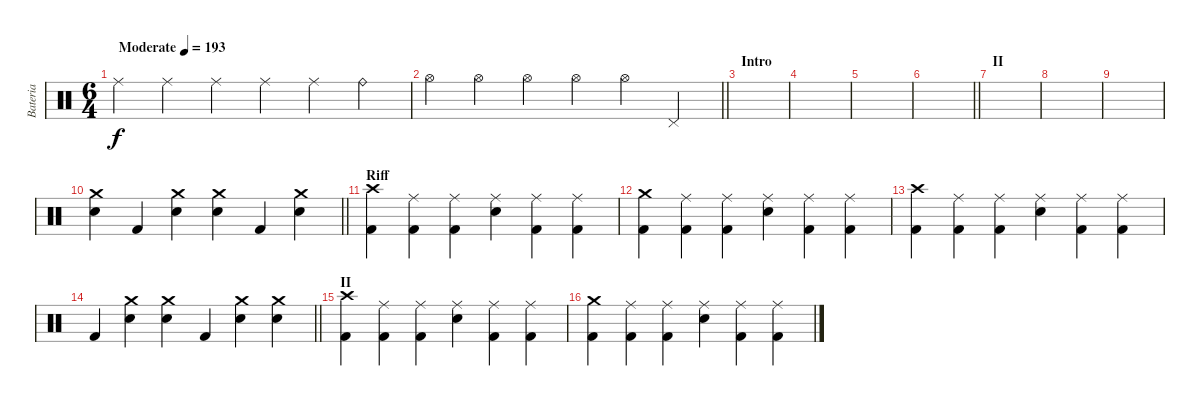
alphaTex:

\track ("Bateria" "Bateria") {instrument percussion}
\staff {score}
\articulation defaults
\ts (6 4)
\tempo (193 "Moderate")
\clef neutral
\ks c "Ride (middle)".4{dy f} "Ride (middle)".4 "Ride (middle)".4 "Ride (middle)".4 "Ride (middle)".4 "Ride (bell)".4
|
\barLineRight lightlight "Hi-Hat (open)".4 "Hi-Hat (open)".4 "Hi-Hat (open)".4 "Hi-Hat (open)".4 "Hi-Hat (open)".4 "Pedal Hi-Hat (hit)".4
|
\section ("" "Intro")
|
|
|
\barLineRight lightlight
|
\section ("" "II")
|
|
|
\barLineRight lightlight
("Electric Snare (hit)" "Crash medium (hit)").4 "Kick (hit) 2".4 ("Electric Snare (hit)" "Crash medium (hit)").4 ("Electric Snare (hit)" "Crash medium (hit)").4 "Kick (hit) 2".4 ("Electric Snare (hit)" "Crash medium (hit)").4 |
\section ("" "Riff")
("Kick (hit) 2" "Crash high (hit)").4 ("Kick (hit) 2" "Ride (middle)").4 ("Kick (hit) 2" "Ride (middle)").4 ("Electric Snare (hit)" "Ride (middle)").4 ("Kick (hit) 2" "Ride (middle)").4 ("Kick (hit) 2" "Ride (middle)").4 |
("Kick (hit) 2" "Crash medium (hit)").4 ("Kick (hit) 2" "Ride (middle)").4 ("Kick (hit) 2" "Ride (middle)").4 ("Electric Snare (hit)" "Ride (middle)").4 ("Kick (hit) 2" "Ride (middle)").4 ("Kick (hit) 2" "Ride (middle)").4 |
("Kick (hit) 2" "Crash high (hit)").4 ("Kick (hit) 2" "Ride (middle)").4 ("Kick (hit) 2" "Ride (middle)").4 ("Electric Snare (hit)" "Ride (middle)").4 ("Kick (hit) 2" "Ride (middle)").4 ("Kick (hit) 2" "Ride (middle)").4 |
\barLineRight lightlight "Kick (hit) 2".4
("Electric Snare (hit)" "Crash medium (hit)").4 ("Electric Snare (hit)" "Crash medium (hit)").4 "Kick (hit) 2".4 ("Electric Snare (hit)" "Crash medium (hit)").4 ("Electric Snare (hit)" "Crash medium (hit)").4 |
\section ("" "II")
("Kick (hit) 2" "Crash high (hit)").4 ("Kick (hit) 2" "Ride (middle)").4 ("Kick (hit) 2" "Ride (middle)").4 ("Electric Snare (hit)" "Ride (middle)").4 ("Kick (hit) 2" "Ride (middle)").4 ("Kick (hit) 2" "Ride (middle)").4 |
("Kick (hit) 2" "Crash medium (hit)").4 ("Kick (hit) 2" "Ride (middle)").4 ("Kick (hit) 2" "Ride (middle)").4 ("Electric Snare (hit)" "Ride (middle)").4 ("Kick (hit) 2" "Ride (middle)").4 ("Kick (hit) 2" "Ride (middle)").4
